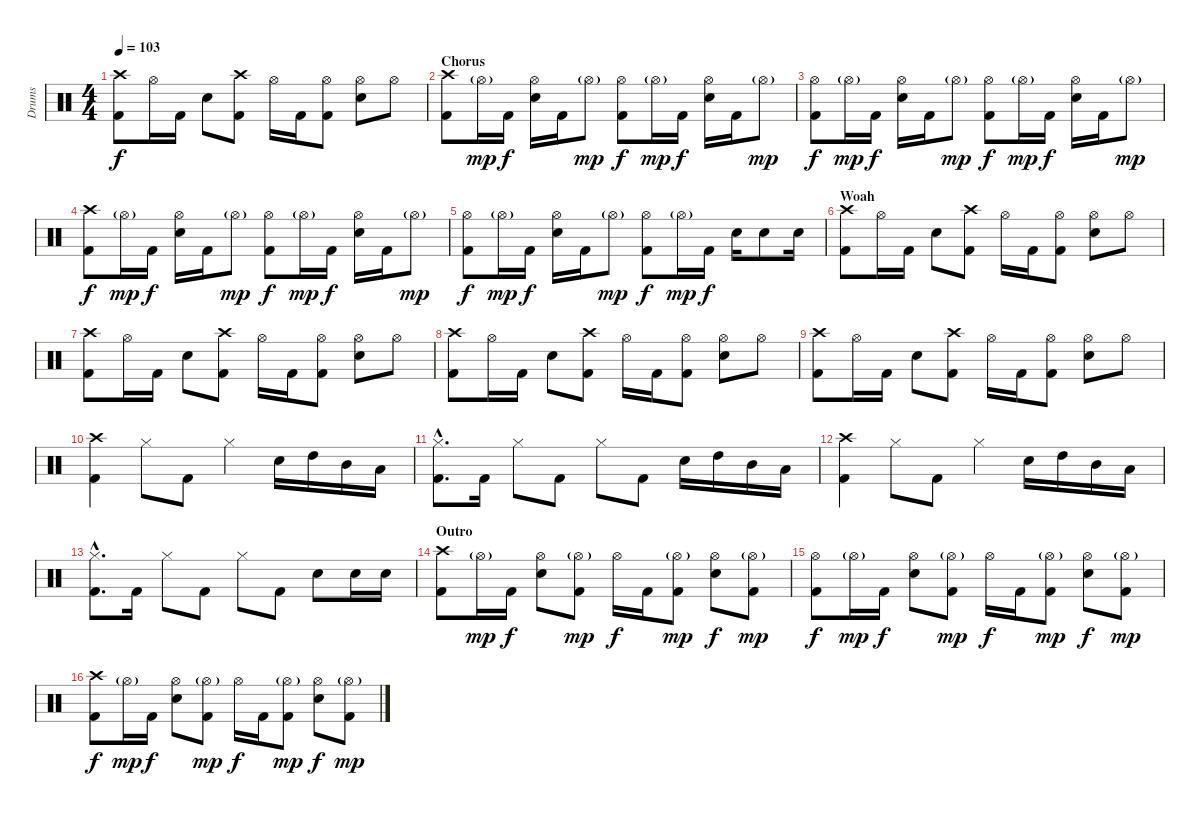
\track ("Drums" "Drums") {instrument percussion}
\staff {score}
\articulation defaults
\ts (4 4)
\tempo 103
\clef neutral
\ks c
("Crash high (hit)" "Kick (hit) 2").8{dy f} "Hi-Hat (open)".16 "Kick (hit) 2".16 "Snare (hit) 2".8 ("Crash high (hit)" "Kick (hit) 2").8 "Hi-Hat (open)".16 "Kick (hit) 2".16 ("Hi-Hat (open)" "Kick (hit) 2").8 ("Hi-Hat (open)" "Snare (hit) 2").8 "Hi-Hat (open)".8 |
\section ("" "Chorus")
("Crash high (hit)" "Kick (hit) 2").8 "Hi-Hat (open)"{g}.16{dy mp} "Kick (hit) 2".16{dy f} ("Hi-Hat (open)" "Snare (hit) 2").16 "Kick (hit) 2".16 "Hi-Hat (open)"{g}.8{dy mp} ("Hi-Hat (open)" "Kick (hit) 2").8{dy f} "Hi-Hat (open)"{g}.16{dy mp} "Kick (hit) 2".16{dy f} ("Hi-Hat (open)" "Snare (hit) 2").16 "Kick (hit) 2".16 "Hi-Hat (open)"{g}.8{dy mp} |
("Hi-Hat (open)" "Kick (hit) 2").8{dy f} "Hi-Hat (open)"{g}.16{dy mp} "Kick (hit) 2".16{dy f} ("Hi-Hat (open)" "Snare (hit) 2").16 "Kick (hit) 2".16 "Hi-Hat (open)"{g}.8{dy mp} ("Hi-Hat (open)" "Kick (hit) 2").8{dy f} "Hi-Hat (open)"{g}.16{dy mp} "Kick (hit) 2".16{dy f} ("Hi-Hat (open)" "Snare (hit) 2").16 "Kick (hit) 2".16 "Hi-Hat (open)"{g}.8{dy mp} |
("Crash high (hit)" "Kick (hit) 2").8{dy f} "Hi-Hat (open)"{g}.16{dy mp} "Kick (hit) 2".16{dy f} ("Hi-Hat (open)" "Snare (hit) 2").16 "Kick (hit) 2".16 "Hi-Hat (open)"{g}.8{dy mp} ("Hi-Hat (open)" "Kick (hit) 2").8{dy f} "Hi-Hat (open)"{g}.16{dy mp} "Kick (hit) 2".16{dy f} ("Hi-Hat (open)" "Snare (hit) 2").16 "Kick (hit) 2".16 "Hi-Hat (open)"{g}.8{dy mp} |
("Hi-Hat (open)" "Kick (hit) 2").8{dy f} "Hi-Hat (open)"{g}.16{dy mp} "Kick (hit) 2".16{dy f} ("Hi-Hat (open)" "Snare (hit) 2").16 "Kick (hit) 2".16 "Hi-Hat (open)"{g}.8{dy mp} ("Hi-Hat (open)" "Kick (hit) 2").8{dy f} "Hi-Hat (open)"{g}.16{dy mp} "Kick (hit) 2".16{dy f} "Snare (hit) 2".16 "Snare (hit) 2".8 "Snare (hit) 2".16 |
\section ("" "Woah")
("Crash high (hit)" "Kick (hit) 2").8 "Hi-Hat (open)".16 "Kick (hit) 2".16 "Snare (hit) 2".8 ("Crash high (hit)" "Kick (hit) 2").8 "Hi-Hat (open)".16 "Kick (hit) 2".16 ("Hi-Hat (open)" "Kick (hit) 2").8 ("Hi-Hat (open)" "Snare (hit) 2").8 "Hi-Hat (open)".8 |
("Crash high (hit)" "Kick (hit) 2").8 "Hi-Hat (open)".16 "Kick (hit) 2".16 "Snare (hit) 2".8 ("Crash high (hit)" "Kick (hit) 2").8 "Hi-Hat (open)".16 "Kick (hit) 2".16 ("Hi-Hat (open)" "Kick (hit) 2").8 ("Hi-Hat (open)" "Snare (hit) 2").8 "Hi-Hat (open)".8 |
("Crash high (hit)" "Kick (hit) 2").8 "Hi-Hat (open)".16 "Kick (hit) 2".16 "Snare (hit) 2".8 ("Crash high (hit)" "Kick (hit) 2").8 "Hi-Hat (open)".16 "Kick (hit) 2".16 ("Hi-Hat (open)" "Kick (hit) 2").8 ("Hi-Hat (open)" "Snare (hit) 2").8 "Hi-Hat (open)".8 |
("Crash high (hit)" "Kick (hit) 2").8 "Hi-Hat (open)".16 "Kick (hit) 2".16 "Snare (hit) 2".8 ("Crash high (hit)" "Kick (hit) 2").8 "Hi-Hat (open)".16 "Kick (hit) 2".16 ("Hi-Hat (open)" "Kick (hit) 2").8 ("Hi-Hat (open)" "Snare (hit) 2").8 "Hi-Hat (open)".8 |
("Crash high (hit)" "Kick (hit) 2").4 "Hi-Hat (closed)".8 "Kick (hit) 2".8 "Hi-Hat (closed)".4 "Snare (hit) 2".16 "High Tom (hit)".16 "Mid Tom (hit)".16 "Low Floor Tom (hit)".16 |
("Hi-Hat (closed)"{hac} "Kick (hit) 2"{hac}).8{d} "Kick (hit) 2".16 "Hi-Hat (closed)".8 "Kick (hit) 2".8 "Hi-Hat (closed)".8 "Kick (hit) 2".8 "Snare (hit) 2".16 "High Tom (hit)".16 "Mid Tom (hit)".16 "Low Floor Tom (hit)".16 |
("Crash high (hit)" "Kick (hit) 2").4 "Hi-Hat (closed)".8 "Kick (hit) 2".8 "Hi-Hat (closed)".4 "Snare (hit) 2".16 "High Tom (hit)".16 "Mid Tom (hit)".16 "Low Floor Tom (hit)".16 |
("Hi-Hat (closed)"{hac} "Kick (hit) 2"{hac}).8{d} "Kick (hit) 2".16 "Hi-Hat (closed)".8 "Kick (hit) 2".8 "Hi-Hat (closed)".8 "Kick (hit) 2".8 "Snare (hit) 2".8 "Snare (hit) 2".16 "Snare (hit) 2".16 |
\section ("" "Outro")
("Crash high (hit)" "Kick (hit) 2").8 "Hi-Hat (open)"{g}.16{dy mp} "Kick (hit) 2".16{dy f} ("Hi-Hat (open)" "Snare (hit) 2").8 ("Hi-Hat (open)"{g} "Kick (hit) 2").8{dy mp} "Hi-Hat (open)".16{dy f} "Kick (hit) 2".16 ("Hi-Hat (open)"{g} "Kick (hit) 2").8{dy mp} ("Hi-Hat (open)" "Snare (hit) 2").8{dy f} ("Hi-Hat (open)"{g} "Kick (hit) 2").8{dy mp} |
("Hi-Hat (open)" "Kick (hit) 2").8{dy f} "Hi-Hat (open)"{g}.16{dy mp} "Kick (hit) 2".16{dy f} ("Hi-Hat (open)" "Snare (hit) 2").8 ("Hi-Hat (open)"{g} "Kick (hit) 2").8{dy mp} "Hi-Hat (open)".16{dy f} "Kick (hit) 2".16 ("Hi-Hat (open)"{g} "Kick (hit) 2").8{dy mp} ("Hi-Hat (open)" "Snare (hit) 2").8{dy f} ("Hi-Hat (open)"{g} "Kick (hit) 2").8{dy mp} |
("Crash high (hit)" "Kick (hit) 2").8{dy f} "Hi-Hat (open)"{g}.16{dy mp} "Kick (hit) 2".16{dy f} ("Hi-Hat (open)" "Snare (hit) 2").8 ("Hi-Hat (open)"{g} "Kick (hit) 2").8{dy mp} "Hi-Hat (open)".16{dy f} "Kick (hit) 2".16 ("Hi-Hat (open)"{g} "Kick (hit) 2").8{dy mp} ("Hi-Hat (open)" "Snare (hit) 2").8{dy f} ("Hi-Hat (open)"{g} "Kick (hit) 2").8{dy mp}
